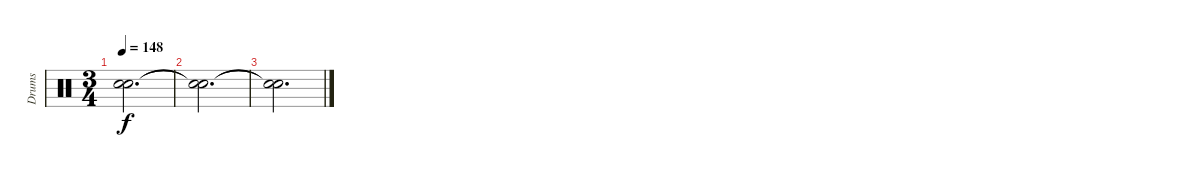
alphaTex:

\track ("Drums" "Drums") {instrument percussion}
\staff {score}
\articulation defaults
\ts (3 4)
\tempo 148
\clef neutral
\ks c
("Snare (hit)"{t} "Snare (hit)"{t}).2{d dy f} |
("Snare (hit)"{t} "Snare (hit)"{t}).2{d} |
("Snare (hit)"{t} "Snare (hit)"{t}).2{d}
